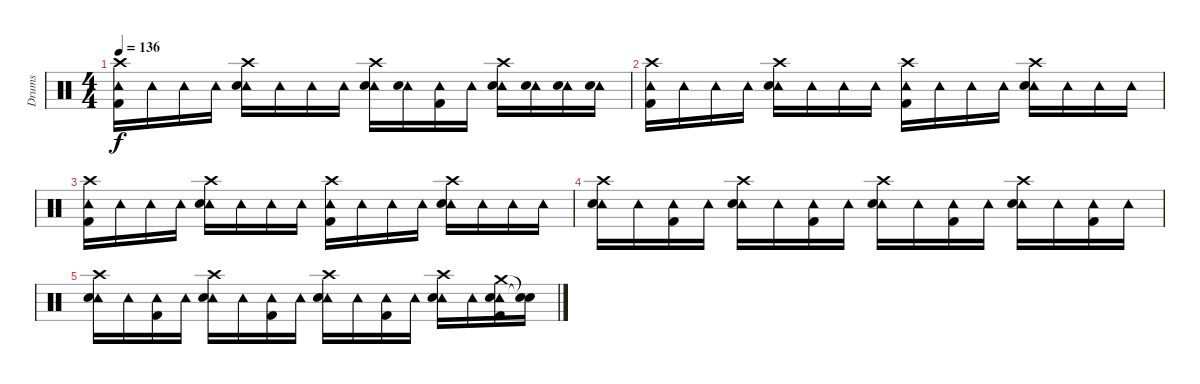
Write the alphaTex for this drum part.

\track ("Drums" "Drums") {instrument percussion}
\staff {score}
\articulation defaults
\ts (4 4)
\tempo 136
\clef neutral
\ks c
("Crash high (hit)" "Tambourine (hit)" "Kick (hit) 2").16{dy f} "Tambourine (hit)".16 "Tambourine (hit)".16 "Tambourine (hit)".16 ("Crash high (hit)" "Tambourine (hit)" "Electric Snare (hit)").16 "Tambourine (hit)".16 "Tambourine (hit)".16 "Tambourine (hit)".16 ("Crash high (hit)" "Tambourine (hit)" "Electric Snare (hit)").16 ("Tambourine (hit)" "Electric Snare (hit)").16 ("Tambourine (hit)" "Kick (hit) 2").16 "Tambourine (hit)".16 ("Crash high (hit)" "Tambourine (hit)" "Electric Snare (hit)").16 ("Tambourine (hit)" "Electric Snare (hit)").16 ("Tambourine (hit)" "Electric Snare (hit)").16 ("Tambourine (hit)" "Electric Snare (hit)").16 |
("Crash high (hit)" "Tambourine (hit)" "Kick (hit) 2").16 "Tambourine (hit)".16 "Tambourine (hit)".16 "Tambourine (hit)".16 ("Crash high (hit)" "Tambourine (hit)" "Electric Snare (hit)").16 "Tambourine (hit)".16 "Tambourine (hit)".16 "Tambourine (hit)".16 ("Crash high (hit)" "Tambourine (hit)" "Kick (hit) 2").16 "Tambourine (hit)".16 "Tambourine (hit)".16 "Tambourine (hit)".16 ("Crash high (hit)" "Tambourine (hit)" "Electric Snare (hit)").16 "Tambourine (hit)".16 "Tambourine (hit)".16 "Tambourine (hit)".16 |
("Crash high (hit)" "Tambourine (hit)" "Kick (hit) 2").16 "Tambourine (hit)".16 "Tambourine (hit)".16 "Tambourine (hit)".16 ("Crash high (hit)" "Tambourine (hit)" "Electric Snare (hit)").16 "Tambourine (hit)".16 "Tambourine (hit)".16 "Tambourine (hit)".16 ("Crash high (hit)" "Tambourine (hit)" "Kick (hit) 2").16 "Tambourine (hit)".16 "Tambourine (hit)".16 "Tambourine (hit)".16 ("Crash high (hit)" "Tambourine (hit)" "Electric Snare (hit)").16 "Tambourine (hit)".16 "Tambourine (hit)".16 "Tambourine (hit)".16 |
("Crash high (hit)" "Tambourine (hit)" "Electric Snare (hit)").16 "Tambourine (hit)".16 ("Tambourine (hit)" "Kick (hit) 2").16 "Tambourine (hit)".16 ("Crash high (hit)" "Tambourine (hit)" "Electric Snare (hit)").16 "Tambourine (hit)".16 ("Tambourine (hit)" "Kick (hit) 2").16 "Tambourine (hit)".16 ("Crash high (hit)" "Tambourine (hit)" "Electric Snare (hit)").16 "Tambourine (hit)".16 ("Tambourine (hit)" "Kick (hit) 2").16 "Tambourine (hit)".16 ("Crash high (hit)" "Tambourine (hit)" "Electric Snare (hit)").16 "Tambourine (hit)".16 ("Tambourine (hit)" "Kick (hit) 2").16 "Tambourine (hit)".16 |
("Crash high (hit)" "Tambourine (hit)" "Electric Snare (hit)").16 "Tambourine (hit)".16 ("Tambourine (hit)" "Kick (hit) 2").16 "Tambourine (hit)".16 ("Crash high (hit)" "Tambourine (hit)" "Electric Snare (hit)").16 "Tambourine (hit)".16 ("Tambourine (hit)" "Kick (hit) 2").16 "Tambourine (hit)".16 ("Crash high (hit)" "Tambourine (hit)" "Electric Snare (hit)").16 "Tambourine (hit)".16 ("Tambourine (hit)" "Kick (hit) 2").16 "Tambourine (hit)".16 ("Crash high (hit)" "Tambourine (hit)" "Electric Snare (hit)").16 "Tambourine (hit)".16 ("Crash medium (hit)" "Tambourine (hit)" "Electric Snare (hit)" "Kick (hit) 2").16 ("Snare (hit)"{t} "Snare (hit)"{t}).16
